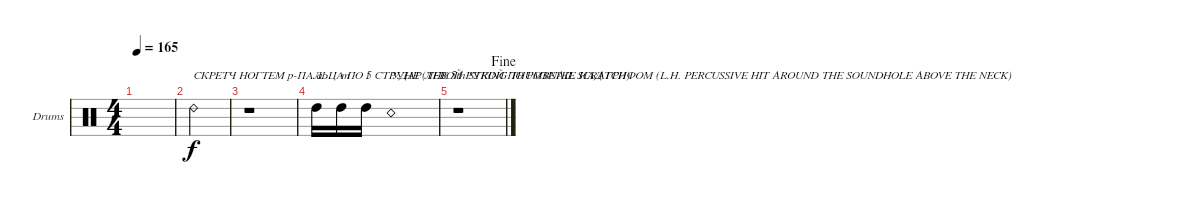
\bracketExtendMode groupsimilarinstruments
\firstSystemTrackNameOrientation horizontal
\otherSystemsTrackNameOrientation horizontal
\track ("Pen Tapping" "Drums") {instrument percussion}
\staff {score}
\articulation defaults
\ts (4 4)
\tempo 165
\clef neutral
\ks c
|
"Ride (bell) 2".4{txt "СКРЕТЧ НОГТЕМ p-ПАЛЬЦА ПО 5 СТРУНЕ (THE 5th STRING THUMBNAIL SCRATCH)"} |
r.1 |
"High Tom (hit)".16{txt "a" dy f} "High Tom (hit)".16{txt "m"} "High Tom (hit)".16{txt "i"} "Snare (rim shot)".1{txt "УДАР ЛЕВОЙ РУКОЙ ПО РОЗЕТКЕ НАД ГРИФОМ (L.H. PERCUSSIVE HIT AROUND THE SOUNDHOLE ABOVE THE NECK)"} |
\jump fine
r.1
